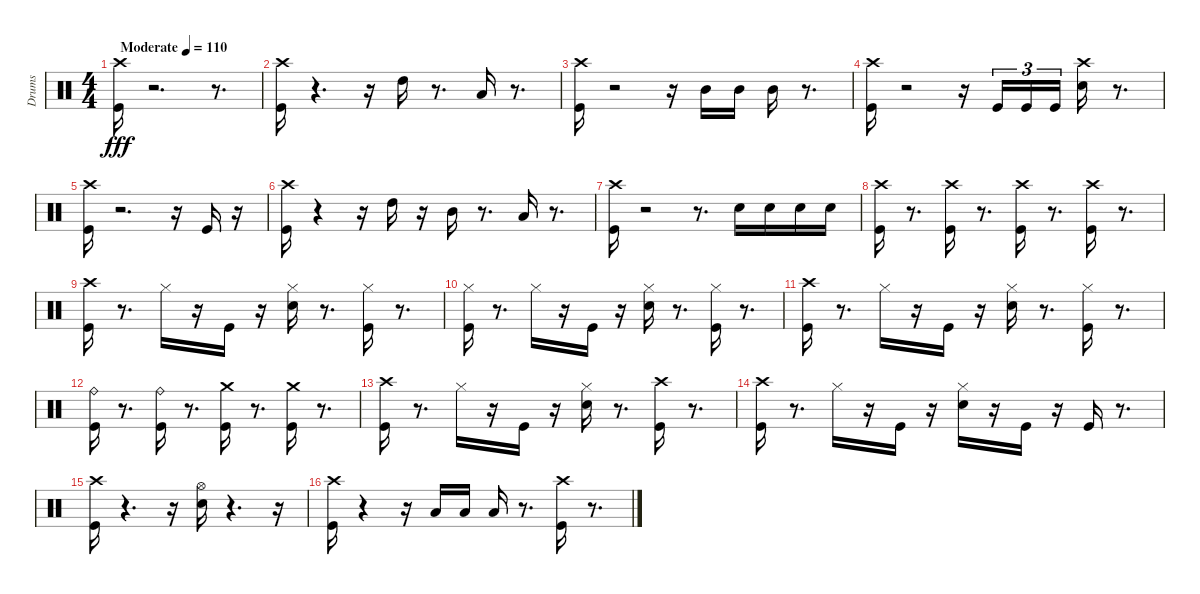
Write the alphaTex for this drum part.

\track ("Drums" "Drums") {instrument percussion}
\staff {score}
\articulation defaults
\ts (4 4)
\tempo (110 "Moderate")
\clef neutral
\ks c
("Crash high (hit)" "Kick (hit)").16{dy fff} r.2{d} r.8{d} |
("Crash high (hit)" "Kick (hit)").16 r.4{d} r.16 "High Tom (hit)".16 r.8{d} "Low Tom (hit)".16 r.8{d} |
("Crash high (hit)" "Kick (hit)").16 r.2 r.16 "Mid Tom (hit)".16 "Mid Tom (hit)".16 "Mid Tom (hit)".16 r.8{d} |
("Crash high (hit)" "Kick (hit)").16 r.2 r.16 "Kick (hit)".16{tu (3 2)} "Kick (hit)".16{tu (3 2)} "Kick (hit)".16{tu (3 2)} ("Crash high (hit)" "Snare (hit) 2").16 r.8{d} |
("Crash high (hit)" "Kick (hit)").16 r.2{d} r.16 "Kick (hit)".16 r.16 |
("Crash high (hit)" "Kick (hit)").16 r.4 r.16 "High Tom (hit)".16 r.16 "Mid Tom (hit)".16 r.8{d} "Low Tom (hit)".16 r.8{d} |
("Crash high (hit)" "Kick (hit)").16 r.2 r.8{d} "Snare (hit) 2".16 "Snare (hit) 2".16 "Snare (hit) 2".16 "Snare (hit) 2".16 |
("Crash high (hit)" "Kick (hit)").16 r.8{d} ("Crash high (hit)" "Kick (hit)").16 r.8{d} ("Crash high (hit)" "Kick (hit)").16 r.8{d} ("Crash high (hit)" "Kick (hit)").16 r.8{d} |
("Crash high (hit)" "Kick (hit)").16 r.8{d} "Hi-Hat (closed)".16 r.16 "Kick (hit)".16 r.16 ("Snare (hit) 2" "Hi-Hat (closed)").16 r.8{d} ("Kick (hit)" "Hi-Hat (closed)").16 r.8{d} |
("Hi-Hat (closed)" "Kick (hit)").16 r.8{d} "Hi-Hat (closed)".16 r.16 "Kick (hit)".16 r.16 ("Hi-Hat (closed)" "Snare (hit) 2").16 r.8{d} ("Hi-Hat (closed)" "Kick (hit)").16 r.8{d} |
("Kick (hit)" "Crash high (hit)").16 r.8{d} "Hi-Hat (closed)".16 r.16 "Kick (hit)".16 r.16 ("Hi-Hat (closed)" "Snare (hit) 2").16 r.8{d} ("Hi-Hat (closed)" "Kick (hit)").16 r.8{d} |
("Ride (bell)" "Kick (hit)").16 r.8{d} ("Ride (bell)" "Kick (hit)").16 r.8{d} ("Crash medium (hit)" "Kick (hit)").16 r.8{d} ("Crash medium (hit)" "Kick (hit)").16 r.8{d} |
("Crash high (hit)" "Kick (hit)").16 r.8{d} "Hi-Hat (closed)".16 r.16 "Kick (hit)".16 r.16 ("Snare (hit) 2" "Hi-Hat (closed)").16 r.8{d} ("Crash high (hit)" "Kick (hit)").16 r.8{d} |
("Kick (hit)" "Crash high (hit)").16 r.8{d} "Hi-Hat (closed)".16 r.16 "Kick (hit)".16 r.16 ("Hi-Hat (closed)" "Snare (hit) 2").16 r.16 "Kick (hit)".16 r.16 "Kick (hit)".16 r.8{d} |
("Crash high (hit)" "Kick (hit)").16 r.4{d} r.16 ("Hi-Hat (open)" "Snare (hit) 2").16 r.4{d} r.16 |
("Crash high (hit)" "Kick (hit)").16 r.4 r.16 "Low Tom (hit)".16 "Low Tom (hit)".16 "Low Tom (hit)".16 r.8{d} ("Crash high (hit)" "Kick (hit)").16 r.8{d}
